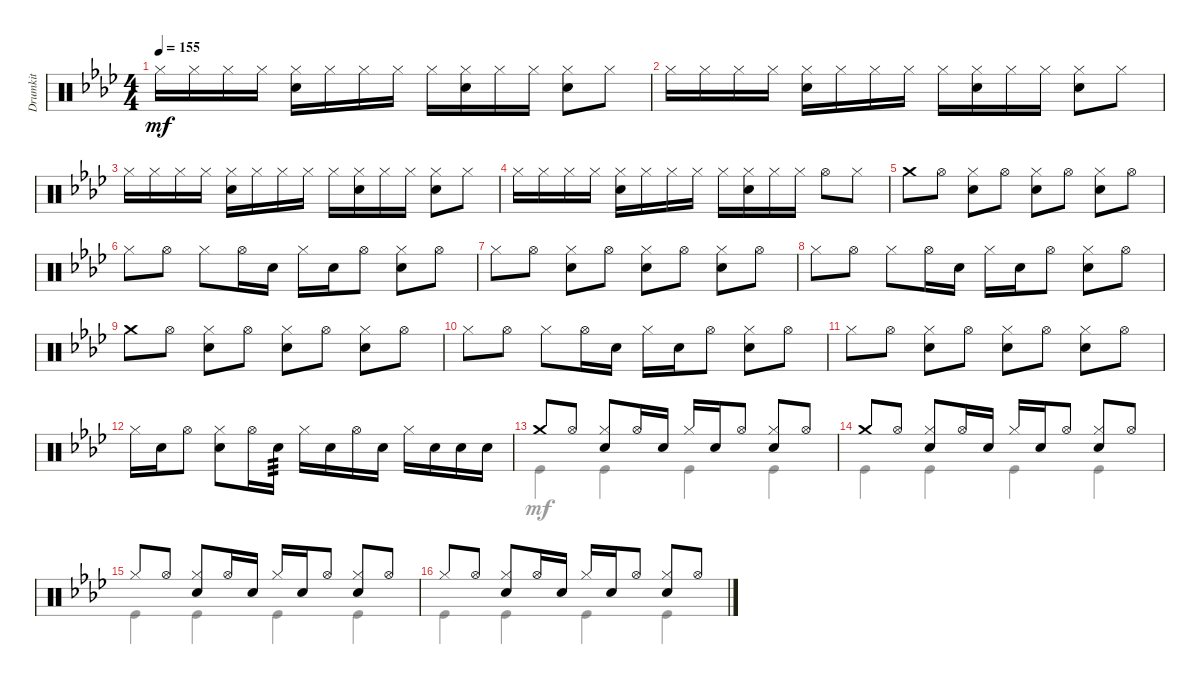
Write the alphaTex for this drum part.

\track ("Drumkit" "Drumkit") {instrument percussion}
\staff {score}
\articulation defaults
\voice
\ts (4 4)
\tempo 155
\clef neutral
\ks ab "Hi-Hat (closed)".16{dy mf} "Hi-Hat (closed)".16 "Hi-Hat (closed)".16 "Hi-Hat (closed)".16
("Hi-Hat (closed)" "Snare (hit) 2").16 "Hi-Hat (closed)".16 "Hi-Hat (closed)".16 "Hi-Hat (closed)".16 "Hi-Hat (closed)".16 ("Hi-Hat (closed)" "Snare (hit) 2").16 "Hi-Hat (closed)".16 "Hi-Hat (closed)".16 ("Hi-Hat (closed)" "Snare (hit) 2").8 "Hi-Hat (closed)".8 |
"Hi-Hat (closed)".16 "Hi-Hat (closed)".16 "Hi-Hat (closed)".16 "Hi-Hat (closed)".16 ("Hi-Hat (closed)" "Snare (hit) 2").16 "Hi-Hat (closed)".16 "Hi-Hat (closed)".16 "Hi-Hat (closed)".16 "Hi-Hat (closed)".16 ("Hi-Hat (closed)" "Snare (hit) 2").16 "Hi-Hat (closed)".16 "Hi-Hat (closed)".16 ("Hi-Hat (closed)" "Snare (hit) 2").8 "Hi-Hat (closed)".8 |
"Hi-Hat (closed)".16 "Hi-Hat (closed)".16 "Hi-Hat (closed)".16 "Hi-Hat (closed)".16 ("Hi-Hat (closed)" "Snare (hit) 2").16 "Hi-Hat (closed)".16 "Hi-Hat (closed)".16 "Hi-Hat (closed)".16 "Hi-Hat (closed)".16 ("Hi-Hat (closed)" "Snare (hit) 2").16 "Hi-Hat (closed)".16 "Hi-Hat (closed)".16 ("Hi-Hat (closed)" "Snare (hit) 2").8 "Hi-Hat (closed)".8 |
"Hi-Hat (closed)".16 "Hi-Hat (closed)".16 "Hi-Hat (closed)".16 "Hi-Hat (closed)".16 ("Hi-Hat (closed)" "Snare (hit) 2").16 "Hi-Hat (closed)".16 "Hi-Hat (closed)".16 "Hi-Hat (closed)".16 "Hi-Hat (closed)".16 ("Hi-Hat (closed)" "Snare (hit) 2").16 "Hi-Hat (closed)".16 "Hi-Hat (closed)".16 "Hi-Hat (open)".8 "Hi-Hat (closed)".8 |
"Crash medium (hit)".8 "Hi-Hat (open)".8 ("Snare (hit) 2" "Hi-Hat (closed)").8 "Hi-Hat (open)".8 ("Snare (hit) 2" "Hi-Hat (closed)").8 "Hi-Hat (open)".8 ("Snare (hit) 2" "Hi-Hat (closed)").8 "Hi-Hat (open)".8 |
"Hi-Hat (closed)".8 "Hi-Hat (open)".8 "Hi-Hat (closed)".8 "Hi-Hat (open)".16 "Snare (hit) 2".16 "Hi-Hat (closed)".16 "Snare (hit) 2".16 "Hi-Hat (open)".8 ("Hi-Hat (closed)" "Snare (hit) 2").8 "Hi-Hat (open)".8 |
"Hi-Hat (closed)".8 "Hi-Hat (open)".8 ("Snare (hit) 2" "Hi-Hat (closed)").8 "Hi-Hat (open)".8 ("Snare (hit) 2" "Hi-Hat (closed)").8 "Hi-Hat (open)".8 ("Snare (hit) 2" "Hi-Hat (closed)").8 "Hi-Hat (open)".8 |
"Hi-Hat (closed)".8 "Hi-Hat (open)".8 "Hi-Hat (closed)".8 "Hi-Hat (open)".16 "Snare (hit) 2".16 "Hi-Hat (closed)".16 "Snare (hit) 2".16 "Hi-Hat (open)".8 ("Hi-Hat (closed)" "Snare (hit) 2").8 "Hi-Hat (open)".8 |
"Crash medium (hit)".8 "Hi-Hat (open)".8 ("Snare (hit) 2" "Hi-Hat (closed)").8 "Hi-Hat (open)".8 ("Snare (hit) 2" "Hi-Hat (closed)").8 "Hi-Hat (open)".8 ("Snare (hit) 2" "Hi-Hat (closed)").8 "Hi-Hat (open)".8 |
"Hi-Hat (closed)".8 "Hi-Hat (open)".8 "Hi-Hat (closed)".8 "Hi-Hat (open)".16 "Snare (hit) 2".16 "Hi-Hat (closed)".16 "Snare (hit) 2".16 "Hi-Hat (open)".8 ("Hi-Hat (closed)" "Snare (hit) 2").8 "Hi-Hat (open)".8 |
"Hi-Hat (closed)".8 "Hi-Hat (open)".8 ("Snare (hit) 2" "Hi-Hat (closed)").8 "Hi-Hat (open)".8 ("Snare (hit) 2" "Hi-Hat (closed)").8 "Hi-Hat (open)".8 ("Snare (hit) 2" "Hi-Hat (closed)").8 "Hi-Hat (open)".8 |
"Hi-Hat (closed)".16 "Snare (hit) 2".16 "Hi-Hat (open)".8 ("Hi-Hat (closed)" "Snare (hit) 2").8 "Hi-Hat (open)".16 "Snare (hit) 2".16{tp 3} "Hi-Hat (closed)".16 "Snare (hit) 2".16 "Hi-Hat (open)".16 "Snare (hit) 2".16 "Hi-Hat (closed)".16 "Snare (hit) 2".16 "Snare (hit) 2".16 "Snare (hit) 2".16 |
"Crash medium (hit)".8 "Hi-Hat (open)".8 ("Hi-Hat (closed)" "Snare (hit) 2").8 "Hi-Hat (open)".16 "Snare (hit) 2".16 "Hi-Hat (closed)".16 "Snare (hit) 2".16 "Hi-Hat (open)".8 ("Hi-Hat (closed)" "Snare (hit) 2").8 "Hi-Hat (open)".8 |
"Crash medium (hit)".8 "Hi-Hat (open)".8 ("Hi-Hat (closed)" "Snare (hit) 2").8 "Hi-Hat (open)".16 "Snare (hit) 2".16 "Hi-Hat (closed)".16 "Snare (hit) 2".16 "Hi-Hat (open)".8 ("Hi-Hat (closed)" "Snare (hit) 2").8 "Hi-Hat (open)".8 |
"Hi-Hat (closed)".8 "Hi-Hat (open)".8 ("Hi-Hat (closed)" "Snare (hit) 2").8 "Hi-Hat (open)".16 "Snare (hit) 2".16 "Hi-Hat (closed)".16 "Snare (hit) 2".16 "Hi-Hat (open)".8 ("Hi-Hat (closed)" "Snare (hit) 2").8 "Hi-Hat (open)".8 |
"Hi-Hat (closed)".8 "Hi-Hat (open)".8 ("Hi-Hat (closed)" "Snare (hit) 2").8 "Hi-Hat (open)".16 "Snare (hit) 2".16 "Hi-Hat (closed)".16 "Snare (hit) 2".16 "Hi-Hat (open)".8 ("Hi-Hat (closed)" "Snare (hit) 2").8 "Hi-Hat (open)".8
\voice
\clef neutral
\ottava regular
\simile none
\ks ab
|
|
|
|
|
|
|
|
|
|
|
|
"Kick (hit)".4 "Kick (hit)".4 "Kick (hit)".4 "Kick (hit)".4 |
"Kick (hit)".4 "Kick (hit)".4 "Kick (hit)".4 "Kick (hit)".4 |
"Kick (hit)".4 "Kick (hit)".4 "Kick (hit)".4 "Kick (hit)".4 |
"Kick (hit)".4 "Kick (hit)".4 "Kick (hit)".4 "Kick (hit)".4
